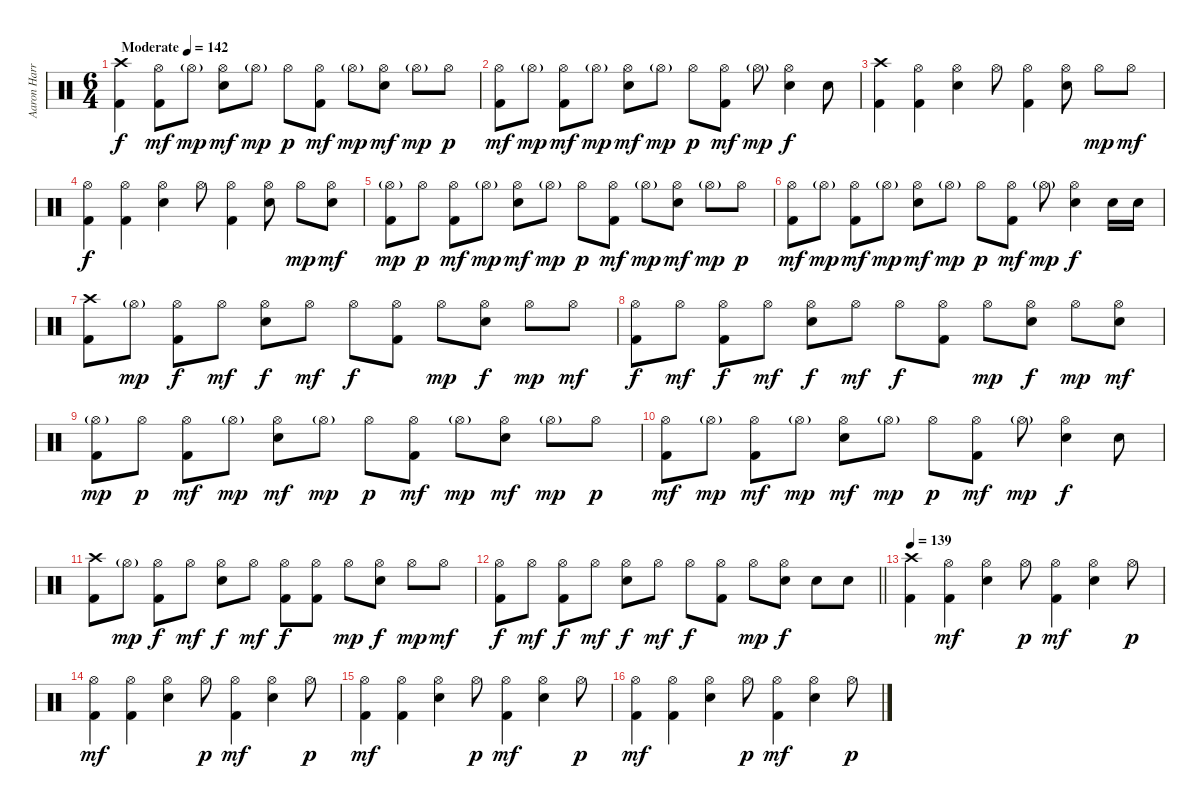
\track ("Aaron Harris" "Aaron Harr") {instrument percussion}
\staff {score}
\articulation defaults
\ts (6 4)
\tempo (142 "Moderate")
\clef neutral
\ks c
("Crash high (hit)" "Kick (hit) 2").4{dy f} ("Hi-Hat (open)" "Kick (hit) 2").8{dy mf} "Hi-Hat (open)"{g}.8{dy mp} ("Hi-Hat (open)" "Electric Snare (hit)").8{dy mf} "Hi-Hat (open)"{g}.8{dy mp} "Hi-Hat (open)".8{dy p} ("Hi-Hat (open)" "Kick (hit) 2").8{dy mf} "Hi-Hat (open)"{g}.8{dy mp} ("Hi-Hat (open)" "Electric Snare (hit)").8{dy mf} "Hi-Hat (open)"{g}.8{dy mp} "Hi-Hat (open)".8{dy p} |
("Hi-Hat (open)" "Kick (hit) 2").8{dy mf} "Hi-Hat (open)"{g}.8{dy mp} ("Hi-Hat (open)" "Kick (hit) 2").8{dy mf} "Hi-Hat (open)"{g}.8{dy mp} ("Hi-Hat (open)" "Electric Snare (hit)").8{dy mf} "Hi-Hat (open)"{g}.8{dy mp} "Hi-Hat (open)".8{dy p} ("Hi-Hat (open)" "Kick (hit) 2").8{dy mf} "Hi-Hat (open)"{g}.8{dy mp} ("Hi-Hat (open)" "Electric Snare (hit)").4{dy f} "Electric Snare (hit)".8 |
("Crash high (hit)" "Kick (hit) 2").4 ("Hi-Hat (open)" "Kick (hit) 2").4 ("Hi-Hat (open)" "Electric Snare (hit)").4 "Hi-Hat (open)".8 ("Hi-Hat (open)" "Kick (hit) 2").4 ("Hi-Hat (open)" "Electric Snare (hit)").8 "Hi-Hat (open)".8{dy mp} "Hi-Hat (open)".8{dy mf} |
("Hi-Hat (open)" "Kick (hit) 2").4{dy f} ("Hi-Hat (open)" "Kick (hit) 2").4 ("Hi-Hat (open)" "Electric Snare (hit)").4 "Hi-Hat (open)".8 ("Hi-Hat (open)" "Kick (hit) 2").4 ("Hi-Hat (open)" "Electric Snare (hit)").8 "Hi-Hat (open)".8{dy mp} ("Hi-Hat (open)" "Electric Snare (hit)").8{dy mf} |
("Hi-Hat (open)"{g} "Kick (hit) 2").8{dy mp} "Hi-Hat (open)".8{dy p} ("Hi-Hat (open)" "Kick (hit) 2").8{dy mf} "Hi-Hat (open)"{g}.8{dy mp} ("Hi-Hat (open)" "Electric Snare (hit)").8{dy mf} "Hi-Hat (open)"{g}.8{dy mp} "Hi-Hat (open)".8{dy p} ("Hi-Hat (open)" "Kick (hit) 2").8{dy mf} "Hi-Hat (open)"{g}.8{dy mp} ("Hi-Hat (open)" "Electric Snare (hit)").8{dy mf} "Hi-Hat (open)"{g}.8{dy mp} "Hi-Hat (open)".8{dy p} |
("Hi-Hat (open)" "Kick (hit) 2").8{dy mf} "Hi-Hat (open)"{g}.8{dy mp} ("Hi-Hat (open)" "Kick (hit) 2").8{dy mf} "Hi-Hat (open)"{g}.8{dy mp} ("Hi-Hat (open)" "Electric Snare (hit)").8{dy mf} "Hi-Hat (open)"{g}.8{dy mp} "Hi-Hat (open)".8{dy p} ("Hi-Hat (open)" "Kick (hit) 2").8{dy mf} "Hi-Hat (open)"{g}.8{dy mp} ("Hi-Hat (open)" "Electric Snare (hit)").4{dy f} "Electric Snare (hit)".16 "Electric Snare (hit)".16 |
("Crash high (hit)" "Kick (hit) 2").8 "Hi-Hat (open)"{g}.8{dy mp} ("Hi-Hat (open)" "Kick (hit) 2").8{dy f} "Hi-Hat (open)".8{dy mf} ("Hi-Hat (open)" "Electric Snare (hit)").8{dy f} "Hi-Hat (open)".8{dy mf} "Hi-Hat (open)".8{dy f} ("Hi-Hat (open)" "Kick (hit) 2").8 "Hi-Hat (open)".8{dy mp} ("Hi-Hat (open)" "Electric Snare (hit)").8{dy f} "Hi-Hat (open)".8{dy mp} "Hi-Hat (open)".8{dy mf} |
("Hi-Hat (open)" "Kick (hit) 2").8{dy f} "Hi-Hat (open)".8{dy mf} ("Hi-Hat (open)" "Kick (hit) 2").8{dy f} "Hi-Hat (open)".8{dy mf} ("Hi-Hat (open)" "Electric Snare (hit)").8{dy f} "Hi-Hat (open)".8{dy mf} "Hi-Hat (open)".8{dy f} ("Hi-Hat (open)" "Kick (hit) 2").8 "Hi-Hat (open)".8{dy mp} ("Hi-Hat (open)" "Electric Snare (hit)").8{dy f} "Hi-Hat (open)".8{dy mp} ("Hi-Hat (open)" "Electric Snare (hit)").8{dy mf} |
("Hi-Hat (open)"{g} "Kick (hit) 2").8{dy mp} "Hi-Hat (open)".8{dy p} ("Hi-Hat (open)" "Kick (hit) 2").8{dy mf} "Hi-Hat (open)"{g}.8{dy mp} ("Hi-Hat (open)" "Electric Snare (hit)").8{dy mf} "Hi-Hat (open)"{g}.8{dy mp} "Hi-Hat (open)".8{dy p} ("Hi-Hat (open)" "Kick (hit) 2").8{dy mf} "Hi-Hat (open)"{g}.8{dy mp} ("Hi-Hat (open)" "Electric Snare (hit)").8{dy mf} "Hi-Hat (open)"{g}.8{dy mp} "Hi-Hat (open)".8{dy p} |
("Hi-Hat (open)" "Kick (hit) 2").8{dy mf} "Hi-Hat (open)"{g}.8{dy mp} ("Hi-Hat (open)" "Kick (hit) 2").8{dy mf} "Hi-Hat (open)"{g}.8{dy mp} ("Hi-Hat (open)" "Electric Snare (hit)").8{dy mf} "Hi-Hat (open)"{g}.8{dy mp} "Hi-Hat (open)".8{dy p} ("Hi-Hat (open)" "Kick (hit) 2").8{dy mf} "Hi-Hat (open)"{g}.8{dy mp} ("Hi-Hat (open)" "Electric Snare (hit)").4{dy f} "Electric Snare (hit)".8 |
("Crash high (hit)" "Kick (hit) 2").8 "Hi-Hat (open)"{g}.8{dy mp} ("Hi-Hat (open)" "Kick (hit) 2").8{dy f} "Hi-Hat (open)".8{dy mf} ("Hi-Hat (open)" "Electric Snare (hit)").8{dy f} "Hi-Hat (open)".8{dy mf} ("Hi-Hat (open)" "Kick (hit) 2").8{dy f} ("Hi-Hat (open)" "Kick (hit) 2").8 "Hi-Hat (open)".8{dy mp} ("Hi-Hat (open)" "Electric Snare (hit)").8{dy f} "Hi-Hat (open)".8{dy mp} "Hi-Hat (open)".8{dy mf} |
\barLineRight lightlight
("Hi-Hat (open)" "Kick (hit) 2").8{dy f} "Hi-Hat (open)".8{dy mf} ("Hi-Hat (open)" "Kick (hit) 2").8{dy f} "Hi-Hat (open)".8{dy mf} ("Hi-Hat (open)" "Electric Snare (hit)").8{dy f} "Hi-Hat (open)".8{dy mf} "Hi-Hat (open)".8{dy f} ("Hi-Hat (open)" "Kick (hit) 2").8 "Hi-Hat (open)".8{dy mp} ("Hi-Hat (open)" "Electric Snare (hit)").8{dy f} "Electric Snare (hit)".8 "Electric Snare (hit)".8 |
\section ("" "")
\tempo 139
("Crash high (hit)" "Kick (hit) 2").4 ("Hi-Hat (open)" "Kick (hit) 2").4{dy mf} ("Hi-Hat (open)" "Electric Snare (hit)").4 "Hi-Hat (open)".8{dy p} ("Hi-Hat (open)" "Kick (hit) 2").4{dy mf} ("Hi-Hat (open)" "Electric Snare (hit)").4 "Hi-Hat (open)".8{dy p} |
("Hi-Hat (open)" "Kick (hit) 2").4{dy mf} ("Hi-Hat (open)" "Kick (hit) 2").4 ("Hi-Hat (open)" "Electric Snare (hit)").4 "Hi-Hat (open)".8{dy p} ("Hi-Hat (open)" "Kick (hit) 2").4{dy mf} ("Hi-Hat (open)" "Electric Snare (hit)").4 "Hi-Hat (open)".8{dy p} |
("Hi-Hat (open)" "Kick (hit) 2").4{dy mf} ("Hi-Hat (open)" "Kick (hit) 2").4 ("Hi-Hat (open)" "Electric Snare (hit)").4 "Hi-Hat (open)".8{dy p} ("Hi-Hat (open)" "Kick (hit) 2").4{dy mf} ("Hi-Hat (open)" "Electric Snare (hit)").4 "Hi-Hat (open)".8{dy p} |
("Hi-Hat (open)" "Kick (hit) 2").4{dy mf} ("Hi-Hat (open)" "Kick (hit) 2").4 ("Hi-Hat (open)" "Electric Snare (hit)").4 "Hi-Hat (open)".8{dy p} ("Hi-Hat (open)" "Kick (hit) 2").4{dy mf} ("Hi-Hat (open)" "Electric Snare (hit)").4 "Hi-Hat (open)".8{dy p}
